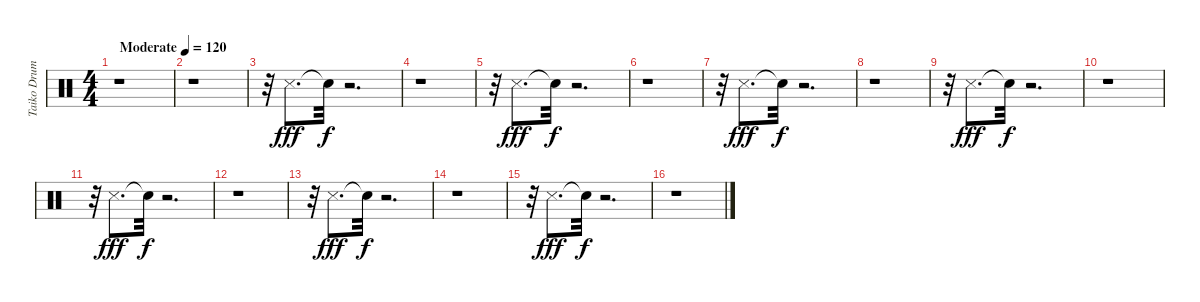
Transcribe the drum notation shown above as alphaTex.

\track ("Taiko Drum" "Taiko Drum") {instrument percussion}
\staff {score}
\articulation defaults
\ts (4 4)
\tempo (120 "Moderate")
\clef neutral
\ks c
r.1{dy fff} |
r.1 |
r.32 "Metronome (hit)".8{d} "Snare (hit)"{t}.32{dy f} r.2{d} |
r.1 |
r.32 "Metronome (hit)".8{d dy fff} "Snare (hit)"{t}.32{dy f} r.2{d} |
r.1 |
r.32 "Metronome (hit)".8{d dy fff} "Snare (hit)"{t}.32{dy f} r.2{d} |
r.1 |
r.32 "Metronome (hit)".8{d dy fff} "Snare (hit)"{t}.32{dy f} r.2{d} |
r.1 |
r.32 "Metronome (hit)".8{d dy fff} "Snare (hit)"{t}.32{dy f} r.2{d} |
r.1 |
r.32 "Metronome (hit)".8{d dy fff} "Snare (hit)"{t}.32{dy f} r.2{d} |
r.1 |
r.32 "Metronome (hit)".8{d dy fff} "Snare (hit)"{t}.32{dy f} r.2{d} |
r.1
